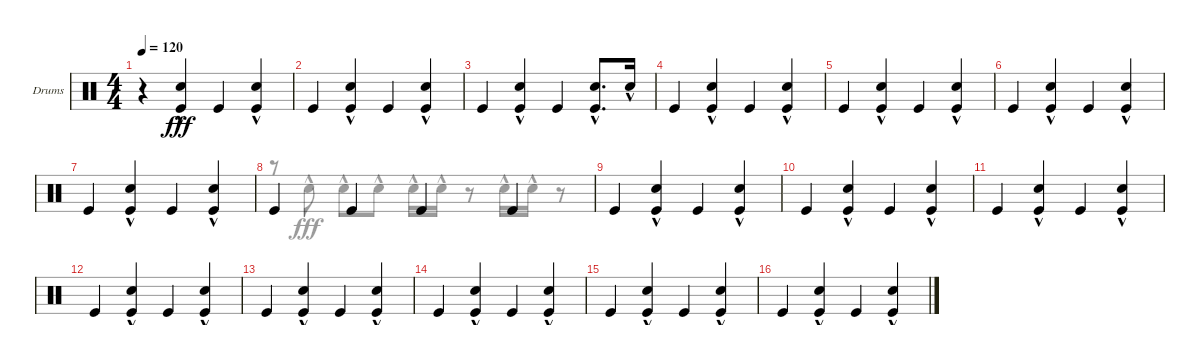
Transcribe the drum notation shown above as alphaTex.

\defaultSystemsLayout 4
\bracketExtendMode groupsimilarinstruments
\firstSystemTrackNameOrientation horizontal
\otherSystemsTrackNameOrientation horizontal
\track ("Drumkit" "Drums") {instrument percussion}
\staff {score}
\articulation defaults
\voice
\ts (4 4)
\tempo 120
\clef neutral
\scale
0.333333
\ks c
r.4{dy fff} ("Kick (hit)" "Snare (hit) 2"{hac}).4 "Kick (hit)".4 ("Kick (hit)" "Snare (hit) 2"{hac}).4 |
\scale
0.333333 "Kick (hit)".4 ("Kick (hit)" "Snare (hit) 2"{hac}).4 "Kick (hit)".4 ("Kick (hit)" "Snare (hit) 2"{hac}).4 |
\scale
0.333333 "Kick (hit)".4 ("Kick (hit)" "Snare (hit) 2"{hac}).4 "Kick (hit)".4 ("Kick (hit)" "Snare (hit) 2"{hac}).8{d} "Snare (hit) 2"{hac}.16 |
\scale
0.333333 "Kick (hit)".4 ("Kick (hit)" "Snare (hit) 2"{hac}).4 "Kick (hit)".4 ("Kick (hit)" "Snare (hit) 2"{hac}).4 |
\scale
0.333333 "Kick (hit)".4 ("Kick (hit)" "Snare (hit) 2"{hac}).4 "Kick (hit)".4 ("Kick (hit)" "Snare (hit) 2"{hac}).4 |
\scale
0.333333 "Kick (hit)".4 ("Kick (hit)" "Snare (hit) 2"{hac}).4 "Kick (hit)".4 ("Kick (hit)" "Snare (hit) 2"{hac}).4 |
\scale
0.333333 "Kick (hit)".4 ("Kick (hit)" "Snare (hit) 2"{hac}).4 "Kick (hit)".4 ("Kick (hit)" "Snare (hit) 2"{hac}).4 |
\scale
0.333333 "Kick (hit)".4 "Kick (hit)".4 "Kick (hit)".4 "Kick (hit)".4 |
\scale
0.333333 "Kick (hit)".4 ("Kick (hit)" "Snare (hit) 2"{hac}).4 "Kick (hit)".4 ("Kick (hit)" "Snare (hit) 2"{hac}).4 |
\scale
0.333333 "Kick (hit)".4 ("Kick (hit)" "Snare (hit) 2"{hac}).4 "Kick (hit)".4 ("Kick (hit)" "Snare (hit) 2"{hac}).4 |
\scale
0.333333 "Kick (hit)".4 ("Kick (hit)" "Snare (hit) 2"{hac}).4 "Kick (hit)".4 ("Kick (hit)" "Snare (hit) 2"{hac}).4 |
\scale
0.333333 "Kick (hit)".4 ("Kick (hit)" "Snare (hit) 2"{hac}).4 "Kick (hit)".4 ("Kick (hit)" "Snare (hit) 2"{hac}).4 |
\scale
0.333333 "Kick (hit)".4 ("Kick (hit)" "Snare (hit) 2"{hac}).4 "Kick (hit)".4 ("Kick (hit)" "Snare (hit) 2"{hac}).4 |
\scale
0.333333 "Kick (hit)".4 ("Kick (hit)" "Snare (hit) 2"{hac}).4 "Kick (hit)".4 ("Kick (hit)" "Snare (hit) 2"{hac}).4 |
\scale
0.333333 "Kick (hit)".4 ("Kick (hit)" "Snare (hit) 2"{hac}).4 "Kick (hit)".4 ("Kick (hit)" "Snare (hit) 2"{hac}).4 |
\scale
0.333333 "Kick (hit)".4 ("Kick (hit)" "Snare (hit) 2"{hac}).4 "Kick (hit)".4 ("Kick (hit)" "Snare (hit) 2"{hac}).4
\voice
\clef neutral
\ottava regular
\simile none
\scale
0.333333
\ks c
|
\scale
0.333333 |
\scale
0.333333 |
\scale
0.333333 |
\scale
0.333333 |
\scale
0.333333 |
\scale
0.333333 |
\scale
0.333333 r.8 "Snare (hit) 2"{hac}.8{dy fff} "Snare (hit) 2"{hac}.8 "Snare (hit) 2"{hac}.8 "Snare (hit) 2"{hac}.16 "Snare (hit) 2"{hac}.16 r.8 "Snare (hit) 2"{hac}.16 "Snare (hit) 2"{hac}.16 r.8 |
\scale
0.333333 |
\scale
0.333333 |
\scale
0.333333 |
\scale
0.333333 |
\scale
0.333333 |
\scale
0.333333 |
\scale
0.333333 |
\scale
0.333333
